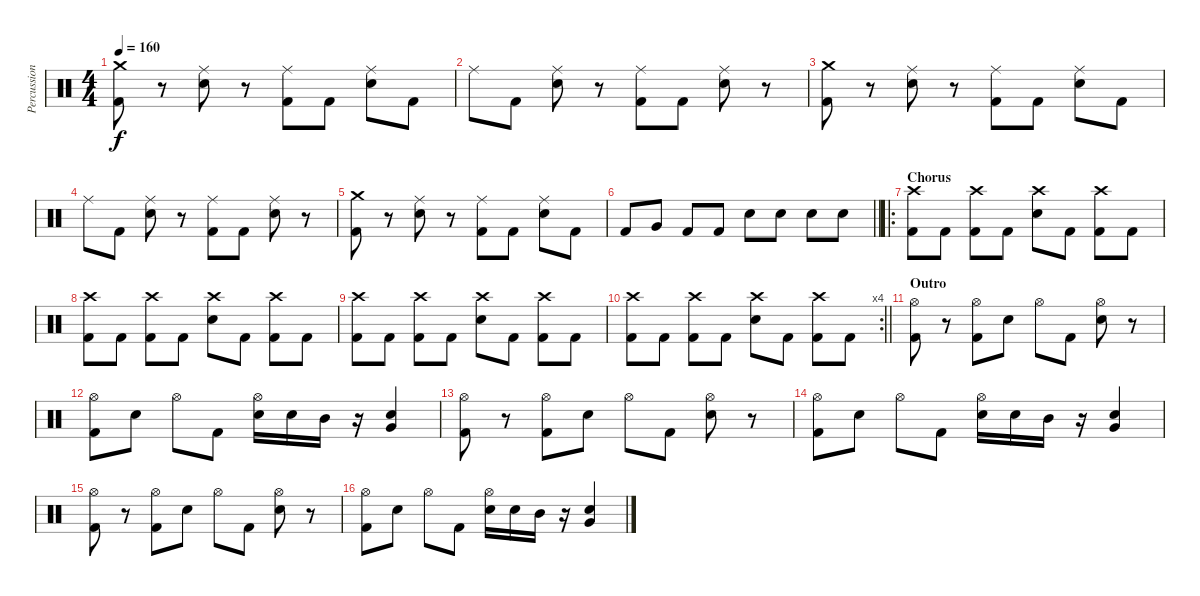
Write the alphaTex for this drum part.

\track ("Percussion" "Percussion") {instrument percussion}
\staff {score}
\articulation defaults
\ts (4 4)
\tempo 160
\clef neutral
\ks c
("Crash medium (hit)" "Kick (hit) 2").8{dy f} r.8 ("Ride (middle)" "Electric Snare (hit)").8 r.8 ("Ride (middle)" "Kick (hit) 2").8 "Kick (hit) 2".8 ("Ride (middle)" "Electric Snare (hit)").8 "Kick (hit) 2".8 |
"Ride (middle)".8 "Kick (hit) 2".8 ("Ride (middle)" "Electric Snare (hit)").8 r.8 ("Ride (middle)" "Kick (hit) 2").8 "Kick (hit) 2".8 ("Ride (middle)" "Electric Snare (hit)").8 r.8 |
("Crash medium (hit)" "Kick (hit) 2").8 r.8 ("Ride (middle)" "Electric Snare (hit)").8 r.8 ("Ride (middle)" "Kick (hit) 2").8 "Kick (hit) 2".8 ("Ride (middle)" "Electric Snare (hit)").8 "Kick (hit) 2".8 |
"Ride (middle)".8 "Kick (hit) 2".8 ("Ride (middle)" "Electric Snare (hit)").8 r.8 ("Ride (middle)" "Kick (hit) 2").8 "Kick (hit) 2".8 ("Ride (middle)" "Electric Snare (hit)").8 r.8 |
("Crash medium (hit)" "Kick (hit) 2").8 r.8 ("Ride (middle)" "Electric Snare (hit)").8 r.8 ("Ride (middle)" "Kick (hit) 2").8 "Kick (hit) 2".8 ("Ride (middle)" "Electric Snare (hit)").8 "Kick (hit) 2".8 |
\barLineRight lightlight "Kick (hit) 2".8 "Very Low Tom (hit)".8 "Kick (hit) 2".8 "Kick (hit) 2".8 "Electric Snare (hit)".8 "Electric Snare (hit)".8 "Electric Snare (hit)".8 "Electric Snare (hit)".8
|
\ro
\section ("" "Chorus")
("Crash high (hit)" "Kick (hit) 2").8 "Kick (hit) 2".8 ("Crash high (hit)" "Kick (hit) 2").8 "Kick (hit) 2".8 ("Crash high (hit)" "Electric Snare (hit)").8 "Kick (hit) 2".8 ("Crash high (hit)" "Kick (hit) 2").8 "Kick (hit) 2".8 |
("Crash high (hit)" "Kick (hit) 2").8 "Kick (hit) 2".8 ("Crash high (hit)" "Kick (hit) 2").8 "Kick (hit) 2".8 ("Crash high (hit)" "Electric Snare (hit)").8 "Kick (hit) 2".8 ("Crash high (hit)" "Kick (hit) 2").8 "Kick (hit) 2".8 |
("Crash high (hit)" "Kick (hit) 2").8 "Kick (hit) 2".8 ("Crash high (hit)" "Kick (hit) 2").8 "Kick (hit) 2".8 ("Crash high (hit)" "Electric Snare (hit)").8 "Kick (hit) 2".8 ("Crash high (hit)" "Kick (hit) 2").8 "Kick (hit) 2".8 |
\rc 4
\barLineRight lightlight
("Crash high (hit)" "Kick (hit) 2").8 "Kick (hit) 2".8 ("Crash high (hit)" "Kick (hit) 2").8 "Kick (hit) 2".8 ("Crash high (hit)" "Electric Snare (hit)").8 "Kick (hit) 2".8 ("Crash high (hit)" "Kick (hit) 2").8 "Kick (hit) 2".8 |
\section ("" "Outro")
("Hi-Hat (open)" "Kick (hit) 2").8 r.8 ("Hi-Hat (open)" "Kick (hit) 2").8 "Electric Snare (hit)".8 "Hi-Hat (open)".8 "Kick (hit) 2".8 ("Hi-Hat (open)" "Electric Snare (hit)").8 r.8 |
("Hi-Hat (open)" "Kick (hit) 2").8 "Electric Snare (hit)".8 "Hi-Hat (open)".8 "Kick (hit) 2".8 ("Hi-Hat (open)" "Electric Snare (hit)").16 "Electric Snare (hit)".16 "Mid Tom (hit)".16 r.16 ("Very Low Tom (hit)" "Electric Snare (hit)").4 |
("Hi-Hat (open)" "Kick (hit) 2").8 r.8 ("Hi-Hat (open)" "Kick (hit) 2").8 "Electric Snare (hit)".8 "Hi-Hat (open)".8 "Kick (hit) 2".8 ("Hi-Hat (open)" "Electric Snare (hit)").8 r.8 |
("Hi-Hat (open)" "Kick (hit) 2").8 "Electric Snare (hit)".8 "Hi-Hat (open)".8 "Kick (hit) 2".8 ("Hi-Hat (open)" "Electric Snare (hit)").16 "Electric Snare (hit)".16 "Mid Tom (hit)".16 r.16 ("Very Low Tom (hit)" "Electric Snare (hit)").4 |
("Hi-Hat (open)" "Kick (hit) 2").8 r.8 ("Hi-Hat (open)" "Kick (hit) 2").8 "Electric Snare (hit)".8 "Hi-Hat (open)".8 "Kick (hit) 2".8 ("Hi-Hat (open)" "Electric Snare (hit)").8 r.8 |
("Hi-Hat (open)" "Kick (hit) 2").8 "Electric Snare (hit)".8 "Hi-Hat (open)".8 "Kick (hit) 2".8 ("Hi-Hat (open)" "Electric Snare (hit)").16 "Electric Snare (hit)".16 "Mid Tom (hit)".16 r.16 ("Very Low Tom (hit)" "Electric Snare (hit)").4
